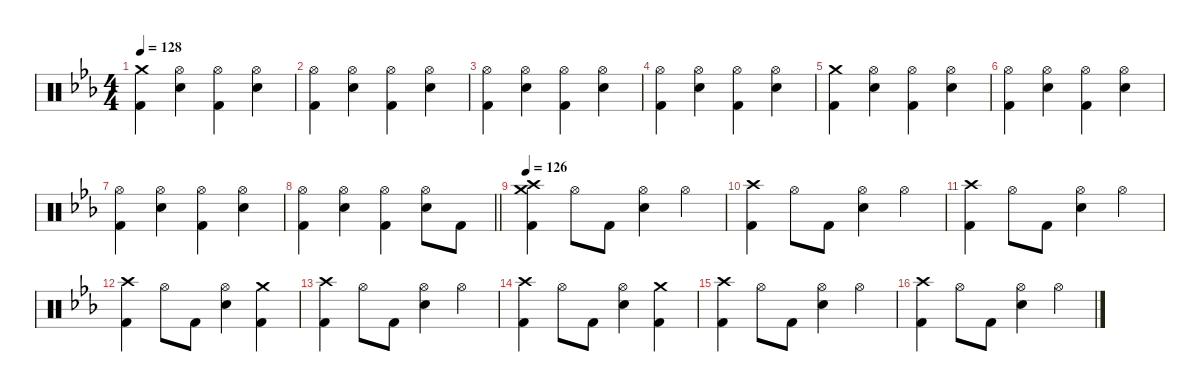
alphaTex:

\defaultSystemsLayout 4
\hideDynamics
\bracketExtendMode nobrackets
\singleTrackTrackNamePolicy hidden
\multiTrackTrackNamePolicy hidden
\firstSystemTrackNameMode fullname
\firstSystemTrackNameOrientation horizontal
\otherSystemsTrackNameOrientation horizontal
\track ("Drums" "drm.") {instrument percussion}
\staff {score}
\articulation defaults
\ts (4 4)
\tempo 128
\clef neutral
\ks cminor
("Crash medium (hit)"{acc forcenatural} "Kick (hit) 2"{acc forcenatural}).4{dy f} ("Hi-Hat (open)"{acc forcenatural} "Snare (hit) 2"{acc forcenatural}).4{dy mp} ("Hi-Hat (open)"{acc forcenatural} "Kick (hit) 2"{acc forcenatural}).4 ("Hi-Hat (open)"{acc forcenatural} "Snare (hit) 2"{acc forcenatural}).4 |
("Hi-Hat (open)"{acc forcenatural} "Kick (hit) 2"{acc forcenatural}).4 ("Hi-Hat (open)"{acc forcenatural} "Snare (hit) 2"{acc forcenatural}).4 ("Hi-Hat (open)"{acc forcenatural} "Kick (hit) 2"{acc forcenatural}).4 ("Hi-Hat (open)"{acc forcenatural} "Snare (hit) 2"{acc forcenatural}).4 |
("Hi-Hat (open)"{acc forcenatural} "Kick (hit) 2"{acc forcenatural}).4 ("Hi-Hat (open)"{acc forcenatural} "Snare (hit) 2"{acc forcenatural}).4 ("Hi-Hat (open)"{acc forcenatural} "Kick (hit) 2"{acc forcenatural}).4 ("Hi-Hat (open)"{acc forcenatural} "Snare (hit) 2"{acc forcenatural}).4 |
("Hi-Hat (open)"{acc forcenatural} "Kick (hit) 2"{acc forcenatural}).4 ("Hi-Hat (open)"{acc forcenatural} "Snare (hit) 2"{acc forcenatural}).4 ("Hi-Hat (open)"{acc forcenatural} "Kick (hit) 2"{acc forcenatural}).4 ("Hi-Hat (open)"{acc forcenatural} "Snare (hit) 2"{acc forcenatural}).4 |
("Crash medium (hit)"{acc forcenatural} "Kick (hit) 2"{acc forcenatural}).4{dy f} ("Hi-Hat (open)"{acc forcenatural} "Snare (hit) 2"{acc forcenatural}).4{dy mp} ("Hi-Hat (open)"{acc forcenatural} "Kick (hit) 2"{acc forcenatural}).4 ("Hi-Hat (open)"{acc forcenatural} "Snare (hit) 2"{acc forcenatural}).4 |
("Hi-Hat (open)"{acc forcenatural} "Kick (hit) 2"{acc forcenatural}).4 ("Hi-Hat (open)"{acc forcenatural} "Snare (hit) 2"{acc forcenatural}).4 ("Hi-Hat (open)"{acc forcenatural} "Kick (hit) 2"{acc forcenatural}).4 ("Hi-Hat (open)"{acc forcenatural} "Snare (hit) 2"{acc forcenatural}).4 |
("Hi-Hat (open)"{acc forcenatural} "Kick (hit) 2"{acc forcenatural}).4 ("Hi-Hat (open)"{acc forcenatural} "Snare (hit) 2"{acc forcenatural}).4 ("Hi-Hat (open)"{acc forcenatural} "Kick (hit) 2"{acc forcenatural}).4 ("Hi-Hat (open)"{acc forcenatural} "Snare (hit) 2"{acc forcenatural}).4 |
\barLineRight lightlight
("Hi-Hat (open)"{acc forcenatural} "Kick (hit) 2"{acc forcenatural}).4 ("Hi-Hat (open)"{acc forcenatural} "Snare (hit) 2"{acc forcenatural}).4 ("Hi-Hat (open)"{acc forcenatural} "Kick (hit) 2"{acc forcenatural}).4 ("Hi-Hat (open)"{acc forcenatural} "Snare (hit) 2"{acc forcenatural}).8 "Kick (hit) 2"{acc forcenatural}.8{dy f} |
\tempo 126
("Crash medium (hit)"{acc forcenatural} "Crash high (hit)"{acc forcenatural} "Kick (hit) 2"{acc forcenatural}).4 "Hi-Hat (open)"{acc forcenatural}.8{dy mp} "Kick (hit) 2"{acc forcenatural}.8{dy f} ("Hi-Hat (open)"{acc forcenatural} "Snare (hit) 2"{acc forcenatural}).4{dy mp} "Hi-Hat (open)"{acc forcenatural}.4 |
("Crash high (hit)"{acc forcenatural} "Kick (hit) 2"{acc forcenatural}).4 "Hi-Hat (open)"{acc forcenatural}.8 "Kick (hit) 2"{acc forcenatural}.8{dy f} ("Hi-Hat (open)"{acc forcenatural} "Snare (hit) 2"{acc forcenatural}).4{dy mp} "Hi-Hat (open)"{acc forcenatural}.4 |
("Crash high (hit)"{acc forcenatural} "Kick (hit) 2"{acc forcenatural}).4 "Hi-Hat (open)"{acc forcenatural}.8 "Kick (hit) 2"{acc forcenatural}.8{dy f} ("Hi-Hat (open)"{acc forcenatural} "Snare (hit) 2"{acc forcenatural}).4{dy mp} "Hi-Hat (open)"{acc forcenatural}.4 |
("Crash high (hit)"{acc forcenatural} "Kick (hit) 2"{acc forcenatural}).4 "Hi-Hat (open)"{acc forcenatural}.8 "Kick (hit) 2"{acc forcenatural}.8{dy f} ("Hi-Hat (open)"{acc forcenatural} "Snare (hit) 2"{acc forcenatural}).4{dy mp} ("Crash medium (hit)"{acc forcenatural} "Kick (hit) 2"{acc forcenatural}).4 |
("Crash high (hit)"{acc forcenatural} "Kick (hit) 2"{acc forcenatural}).4 "Hi-Hat (open)"{acc forcenatural}.8 "Kick (hit) 2"{acc forcenatural}.8{dy f} ("Hi-Hat (open)"{acc forcenatural} "Snare (hit) 2"{acc forcenatural}).4{dy mp} "Hi-Hat (open)"{acc forcenatural}.4 |
("Crash high (hit)"{acc forcenatural} "Kick (hit) 2"{acc forcenatural}).4 "Hi-Hat (open)"{acc forcenatural}.8 "Kick (hit) 2"{acc forcenatural}.8{dy f} ("Hi-Hat (open)"{acc forcenatural} "Snare (hit) 2"{acc forcenatural}).4{dy mp} ("Crash medium (hit)"{acc forcenatural} "Kick (hit) 2"{acc forcenatural}).4 |
("Crash high (hit)"{acc forcenatural} "Kick (hit) 2"{acc forcenatural}).4 "Hi-Hat (open)"{acc forcenatural}.8 "Kick (hit) 2"{acc forcenatural}.8{dy f} ("Hi-Hat (open)"{acc forcenatural} "Snare (hit) 2"{acc forcenatural}).4{dy mp} "Hi-Hat (open)"{acc forcenatural}.4 |
("Crash high (hit)"{acc forcenatural} "Kick (hit) 2"{acc forcenatural}).4 "Hi-Hat (open)"{acc forcenatural}.8 "Kick (hit) 2"{acc forcenatural}.8{dy f} ("Hi-Hat (open)"{acc forcenatural} "Snare (hit) 2"{acc forcenatural}).4{dy mp} "Hi-Hat (open)"{acc forcenatural}.4
